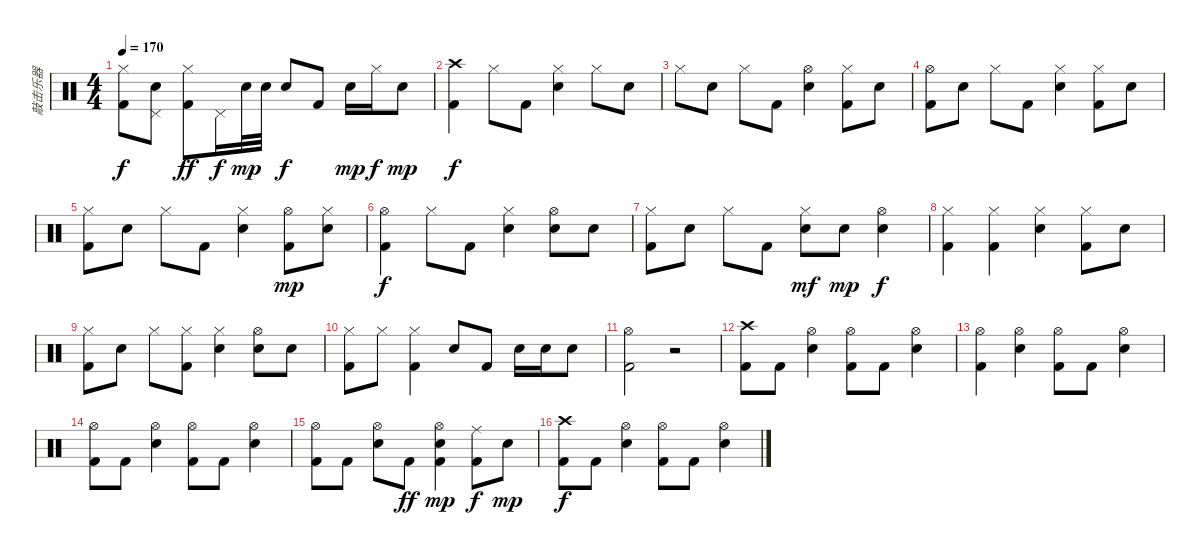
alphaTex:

\track ("敲击乐器" "敲击乐器") {instrument percussion}
\staff {score}
\articulation defaults
\ts (4 4)
\tempo 170
\clef neutral
\ks c
("Hi-Hat (closed)" "Kick (hit) 2").8{dy f} ("Pedal Hi-Hat (hit)" "Snare (hit) 2").8 ("Hi-Hat (closed)" "Kick (hit) 2").8{dy ff} "Pedal Hi-Hat (hit)".16{dy f} "Snare (hit) 2".32{dy mp} "Snare (hit) 2".32 "Snare (hit) 2".8{dy f} "Kick (hit) 2".8 "Snare (hit) 2".16{dy mp} "Hi-Hat (closed)".16{dy f} "Snare (hit) 2".8{dy mp} |
("Crash high (hit)" "Kick (hit) 2").4{dy f} "Hi-Hat (closed)".8 "Kick (hit) 2".8 ("Hi-Hat (closed)" "Snare (hit) 2").4 "Hi-Hat (closed)".8 "Snare (hit) 2".8 |
"Hi-Hat (closed)".8 "Snare (hit) 2".8 "Hi-Hat (closed)".8 "Kick (hit) 2".8 ("Hi-Hat (open)" "Snare (hit) 2").4 ("Hi-Hat (closed)" "Kick (hit) 2").8 "Snare (hit) 2".8 |
("Hi-Hat (open)" "Kick (hit) 2").8 "Snare (hit) 2".8 "Hi-Hat (closed)".8 "Kick (hit) 2".8 ("Hi-Hat (closed)" "Snare (hit) 2").4 ("Hi-Hat (closed)" "Kick (hit) 2").8 "Snare (hit) 2".8 |
("Hi-Hat (closed)" "Kick (hit) 2").8 "Snare (hit) 2".8 "Hi-Hat (closed)".8 "Kick (hit) 2".8 ("Hi-Hat (closed)" "Snare (hit) 2").4 ("Hi-Hat (open)" "Kick (hit) 2").8{dy mp} ("Hi-Hat (closed)" "Snare (hit) 2").8 |
("Hi-Hat (open)" "Kick (hit) 2").4{dy f} "Hi-Hat (closed)".8 "Kick (hit) 2".8 ("Hi-Hat (closed)" "Snare (hit) 2").4 ("Hi-Hat (open)" "Snare (hit) 2").8 "Snare (hit) 2".8 |
("Hi-Hat (closed)" "Kick (hit) 2").8 "Snare (hit) 2".8 "Hi-Hat (closed)".8 "Kick (hit) 2".8 ("Hi-Hat (closed)" "Snare (hit) 2").8{dy mf} "Snare (hit) 2".8{dy mp} ("Hi-Hat (open)" "Snare (hit) 2").4{dy f} |
("Hi-Hat (closed)" "Kick (hit) 2").4 ("Hi-Hat (closed)" "Kick (hit) 2").4 ("Hi-Hat (closed)" "Snare (hit) 2").4 ("Hi-Hat (closed)" "Kick (hit) 2").8 "Snare (hit) 2".8 |
("Hi-Hat (closed)" "Kick (hit) 2").8 "Snare (hit) 2".8 "Hi-Hat (closed)".8 ("Hi-Hat (closed)" "Kick (hit) 2").8 ("Hi-Hat (closed)" "Snare (hit) 2").4 ("Hi-Hat (open)" "Snare (hit) 2").8 "Snare (hit) 2".8 |
("Hi-Hat (closed)" "Kick (hit) 2").8 "Hi-Hat (closed)".8 ("Hi-Hat (closed)" "Kick (hit) 2").4 "Snare (hit) 2".8 "Kick (hit) 2".8 "Snare (hit) 2".16 "Snare (hit) 2".16 "Snare (hit) 2".8 |
("Hi-Hat (open)" "Kick (hit) 2").2 r.2 |
("Crash high (hit)" "Kick (hit) 2").8 "Kick (hit) 2".8 ("Hi-Hat (open)" "Snare (hit) 2").4 ("Hi-Hat (open)" "Kick (hit) 2").8 "Kick (hit) 2".8 ("Hi-Hat (open)" "Snare (hit) 2").4 |
("Hi-Hat (open)" "Kick (hit) 2").4 ("Hi-Hat (open)" "Snare (hit) 2").4 ("Hi-Hat (open)" "Kick (hit) 2").8 "Kick (hit) 2".8 ("Hi-Hat (open)" "Snare (hit) 2").4 |
("Hi-Hat (open)" "Kick (hit) 2").8 "Kick (hit) 2".8 ("Hi-Hat (open)" "Snare (hit) 2").4 ("Hi-Hat (open)" "Kick (hit) 2").8 "Kick (hit) 2".8 ("Hi-Hat (open)" "Snare (hit) 2").4 |
("Hi-Hat (open)" "Kick (hit) 2").8 "Kick (hit) 2".8 ("Hi-Hat (open)" "Snare (hit) 2").8 "Kick (hit) 2".8{dy ff} ("Hi-Hat (open)" "Snare (hit) 2" "Kick (hit) 2").4{dy mp} ("Ride (middle)" "Kick (hit) 2").8{dy f} "Snare (hit) 2".8{dy mp} |
("Crash high (hit)" "Kick (hit) 2").8{dy f} "Kick (hit) 2".8 ("Hi-Hat (open)" "Snare (hit) 2").4 ("Hi-Hat (open)" "Kick (hit) 2").8 "Kick (hit) 2".8 ("Hi-Hat (open)" "Snare (hit) 2").4
